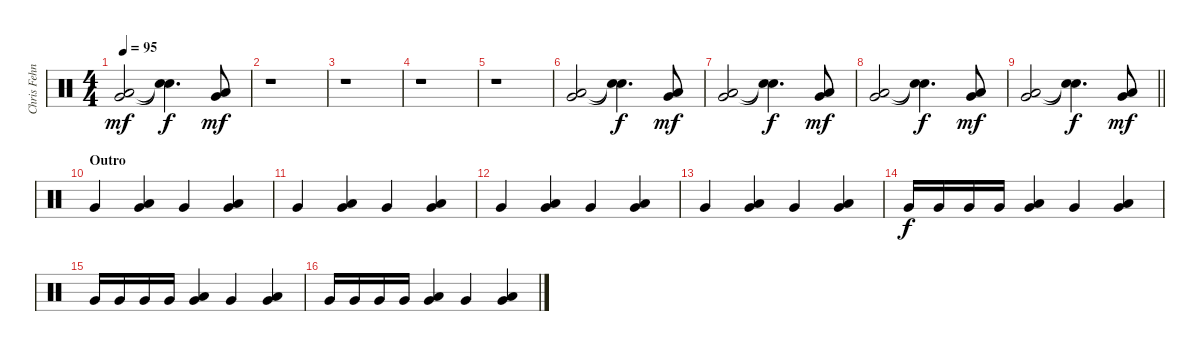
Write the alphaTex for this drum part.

\track ("Chris Fehn" "Chris Fehn") {instrument percussion}
\staff {score}
\articulation defaults
\ts (4 4)
\tempo 95
\clef neutral
\ks c
("Very Low Tom (hit)" "Low Floor Tom (hit)").2{dy mf} ("Snare (hit)"{t} "Snare (hit)"{t}).4{d dy f} ("Very Low Tom (hit)" "Low Floor Tom (hit)").8{dy mf} |
r.1 |
r.1 |
r.1 |
r.1 |
("Very Low Tom (hit)" "Low Floor Tom (hit)").2 ("Snare (hit)"{t} "Snare (hit)"{t}).4{d dy f} ("Very Low Tom (hit)" "Low Floor Tom (hit)").8{dy mf} |
("Very Low Tom (hit)" "Low Floor Tom (hit)").2 ("Snare (hit)"{t} "Snare (hit)"{t}).4{d dy f} ("Very Low Tom (hit)" "Low Floor Tom (hit)").8{dy mf} |
("Very Low Tom (hit)" "Low Floor Tom (hit)").2 ("Snare (hit)"{t} "Snare (hit)"{t}).4{d dy f} ("Very Low Tom (hit)" "Low Floor Tom (hit)").8{dy mf} |
\barLineRight lightlight
("Very Low Tom (hit)" "Low Floor Tom (hit)").2 ("Snare (hit)"{t} "Snare (hit)"{t}).4{d dy f} ("Very Low Tom (hit)" "Low Floor Tom (hit)").8{dy mf} |
\section ("" "Outro")
"Very Low Tom (hit)".4 ("Very Low Tom (hit)" "Low Floor Tom (hit)").4 "Very Low Tom (hit)".4 ("Very Low Tom (hit)" "Low Floor Tom (hit)").4 |
"Very Low Tom (hit)".4 ("Very Low Tom (hit)" "Low Floor Tom (hit)").4 "Very Low Tom (hit)".4 ("Very Low Tom (hit)" "Low Floor Tom (hit)").4 |
"Very Low Tom (hit)".4 ("Very Low Tom (hit)" "Low Floor Tom (hit)").4 "Very Low Tom (hit)".4 ("Very Low Tom (hit)" "Low Floor Tom (hit)").4 |
"Very Low Tom (hit)".4 ("Very Low Tom (hit)" "Low Floor Tom (hit)").4 "Very Low Tom (hit)".4 ("Very Low Tom (hit)" "Low Floor Tom (hit)").4 |
"Very Low Tom (hit)".16{dy f} "Very Low Tom (hit)".16 "Very Low Tom (hit)".16 "Very Low Tom (hit)".16 ("Very Low Tom (hit)" "Low Floor Tom (hit)").4 "Very Low Tom (hit)".4 ("Very Low Tom (hit)" "Low Floor Tom (hit)").4 |
"Very Low Tom (hit)".16 "Very Low Tom (hit)".16 "Very Low Tom (hit)".16 "Very Low Tom (hit)".16 ("Very Low Tom (hit)" "Low Floor Tom (hit)").4 "Very Low Tom (hit)".4 ("Very Low Tom (hit)" "Low Floor Tom (hit)").4 |
"Very Low Tom (hit)".16 "Very Low Tom (hit)".16 "Very Low Tom (hit)".16 "Very Low Tom (hit)".16 ("Very Low Tom (hit)" "Low Floor Tom (hit)").4 "Very Low Tom (hit)".4 ("Very Low Tom (hit)" "Low Floor Tom (hit)").4
